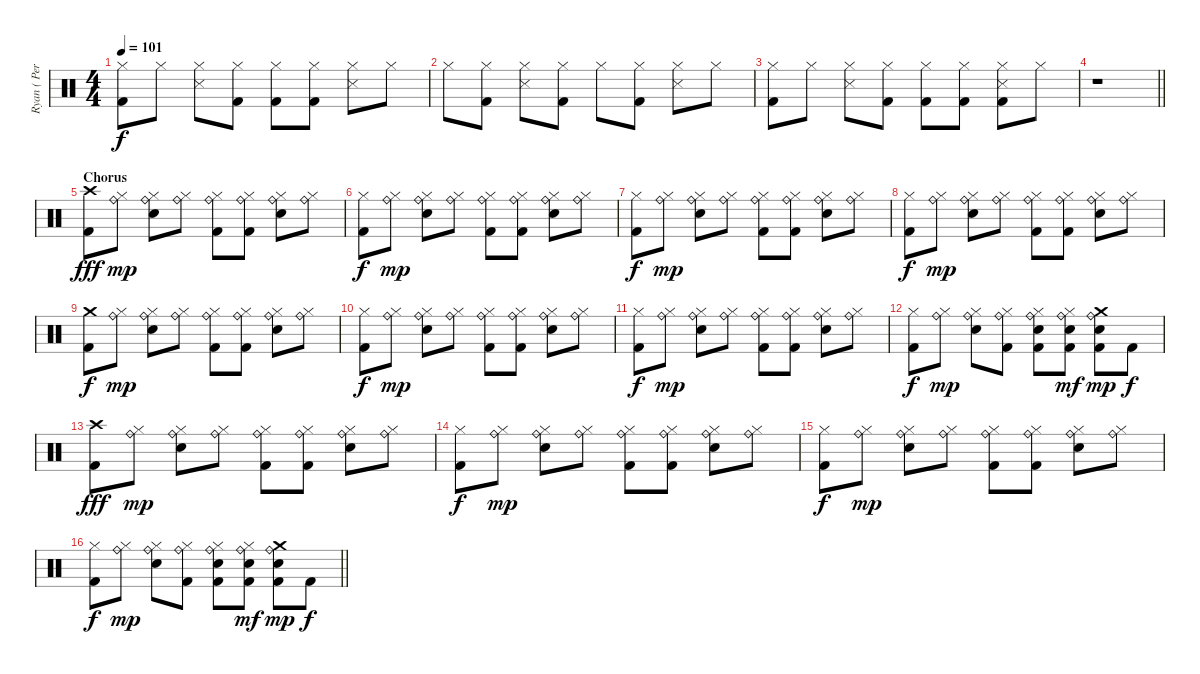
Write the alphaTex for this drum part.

\track ("Ryan ( Percussion )" "Ryan ( Per") {instrument percussion}
\staff {score}
\articulation defaults
\ts (4 4)
\tempo 101
\clef neutral
\ks c
("Hi-Hat (closed)" "Kick (hit) 2").8{dy f} "Hi-Hat (closed)".8 ("Hi-Hat (closed)" "Snare (side stick) 3").8 ("Hi-Hat (closed)" "Kick (hit) 2").8 ("Hi-Hat (closed)" "Kick (hit) 2").8 ("Hi-Hat (closed)" "Kick (hit) 2").8 ("Hi-Hat (closed)" "Snare (side stick) 3").8 "Hi-Hat (closed)".8 |
"Hi-Hat (closed)".8 ("Hi-Hat (closed)" "Kick (hit) 2").8 ("Hi-Hat (closed)" "Snare (side stick) 3").8 ("Hi-Hat (closed)" "Kick (hit) 2").8 "Hi-Hat (closed)".8 ("Hi-Hat (closed)" "Kick (hit) 2").8 ("Hi-Hat (closed)" "Snare (side stick) 3").8 "Hi-Hat (closed)".8 |
("Hi-Hat (closed)" "Kick (hit) 2").8 "Hi-Hat (closed)".8 ("Hi-Hat (closed)" "Snare (side stick) 3").8 ("Hi-Hat (closed)" "Kick (hit) 2").8 ("Hi-Hat (closed)" "Kick (hit) 2").8 ("Hi-Hat (closed)" "Kick (hit) 2").8 ("Hi-Hat (closed)" "Kick (hit) 2" "Snare (side stick) 3").8 "Hi-Hat (closed)".8 |
\barLineRight lightlight
r.1 |
\section ("" "Chorus")
("Crash high (hit)" "Kick (hit) 2").8{dy fff} ("Hi-Hat (closed)" "Ride (bell)").8{dy mp} ("Hi-Hat (closed)" "Snare (hit) 2" "Ride (bell)").8 ("Hi-Hat (closed)" "Ride (bell)").8 ("Hi-Hat (closed)" "Kick (hit) 2" "Ride (bell)").8 ("Hi-Hat (closed)" "Kick (hit) 2" "Ride (bell)").8 ("Hi-Hat (closed)" "Snare (hit) 2" "Ride (bell)").8 ("Hi-Hat (closed)" "Ride (bell)").8 |
("Hi-Hat (closed)" "Kick (hit) 2").8{dy f} ("Hi-Hat (closed)" "Ride (bell)").8{dy mp} ("Hi-Hat (closed)" "Snare (hit) 2" "Ride (bell)").8 ("Hi-Hat (closed)" "Ride (bell)").8 ("Hi-Hat (closed)" "Kick (hit) 2" "Ride (bell)").8 ("Hi-Hat (closed)" "Kick (hit) 2" "Ride (bell)").8 ("Hi-Hat (closed)" "Snare (hit) 2" "Ride (bell)").8 ("Hi-Hat (closed)" "Ride (bell)").8 |
("Hi-Hat (closed)" "Kick (hit) 2").8{dy f} ("Hi-Hat (closed)" "Ride (bell)").8{dy mp} ("Hi-Hat (closed)" "Snare (hit) 2" "Ride (bell)").8 ("Hi-Hat (closed)" "Ride (bell)").8 ("Hi-Hat (closed)" "Kick (hit) 2" "Ride (bell)").8 ("Hi-Hat (closed)" "Kick (hit) 2" "Ride (bell)").8 ("Hi-Hat (closed)" "Snare (hit) 2" "Ride (bell)").8 ("Hi-Hat (closed)" "Ride (bell)").8 |
("Hi-Hat (closed)" "Kick (hit) 2").8{dy f} ("Hi-Hat (closed)" "Ride (bell)").8{dy mp} ("Hi-Hat (closed)" "Snare (hit) 2" "Ride (bell)").8 ("Hi-Hat (closed)" "Ride (bell)").8 ("Hi-Hat (closed)" "Kick (hit) 2" "Ride (bell)").8 ("Hi-Hat (closed)" "Kick (hit) 2" "Ride (bell)").8 ("Hi-Hat (closed)" "Snare (hit) 2" "Ride (bell)").8 ("Hi-Hat (closed)" "Ride (bell)").8 |
("Crash medium (hit)" "Kick (hit) 2").8{dy f} ("Hi-Hat (closed)" "Ride (bell)").8{dy mp} ("Hi-Hat (closed)" "Snare (hit) 2" "Ride (bell)").8 ("Hi-Hat (closed)" "Ride (bell)").8 ("Hi-Hat (closed)" "Kick (hit) 2" "Ride (bell)").8 ("Hi-Hat (closed)" "Kick (hit) 2" "Ride (bell)").8 ("Hi-Hat (closed)" "Snare (hit) 2" "Ride (bell)").8 ("Hi-Hat (closed)" "Ride (bell)").8 |
("Hi-Hat (closed)" "Kick (hit) 2").8{dy f} ("Hi-Hat (closed)" "Ride (bell)").8{dy mp} ("Hi-Hat (closed)" "Snare (hit) 2" "Ride (bell)").8 ("Hi-Hat (closed)" "Ride (bell)").8 ("Hi-Hat (closed)" "Kick (hit) 2" "Ride (bell)").8 ("Hi-Hat (closed)" "Kick (hit) 2" "Ride (bell)").8 ("Hi-Hat (closed)" "Snare (hit) 2" "Ride (bell)").8 ("Hi-Hat (closed)" "Ride (bell)").8 |
("Hi-Hat (closed)" "Kick (hit) 2").8{dy f} ("Hi-Hat (closed)" "Ride (bell)").8{dy mp} ("Hi-Hat (closed)" "Snare (hit) 2" "Ride (bell)").8 ("Hi-Hat (closed)" "Ride (bell)").8 ("Hi-Hat (closed)" "Kick (hit) 2" "Ride (bell)").8 ("Hi-Hat (closed)" "Kick (hit) 2" "Ride (bell)").8 ("Hi-Hat (closed)" "Snare (hit) 2" "Ride (bell)").8 ("Hi-Hat (closed)" "Ride (bell)").8 |
("Hi-Hat (closed)" "Kick (hit) 2").8{dy f} ("Hi-Hat (closed)" "Ride (bell)").8{dy mp} ("Hi-Hat (closed)" "Snare (hit) 2" "Ride (bell)").8 ("Hi-Hat (closed)" "Kick (hit) 2" "Ride (bell)").8 ("Hi-Hat (closed)" "Kick (hit) 2" "Snare (hit) 2" "Ride (bell)").8 ("Hi-Hat (closed)" "Kick (hit) 2" "Snare (hit) 2" "Ride (bell)").8{dy mf} ("Crash medium (hit)" "Kick (hit) 2" "Snare (hit) 2" "Ride (bell)").8{dy mp} "Kick (hit) 2".8{dy f} |
("Crash high (hit)" "Kick (hit) 2").8{dy fff} ("Hi-Hat (closed)" "Ride (bell)").8{dy mp} ("Hi-Hat (closed)" "Snare (hit) 2" "Ride (bell)").8 ("Hi-Hat (closed)" "Ride (bell)").8 ("Hi-Hat (closed)" "Kick (hit) 2" "Ride (bell)").8 ("Hi-Hat (closed)" "Kick (hit) 2" "Ride (bell)").8 ("Hi-Hat (closed)" "Snare (hit) 2" "Ride (bell)").8 ("Hi-Hat (closed)" "Ride (bell)").8 |
("Hi-Hat (closed)" "Kick (hit) 2").8{dy f} ("Hi-Hat (closed)" "Ride (bell)").8{dy mp} ("Hi-Hat (closed)" "Snare (hit) 2" "Ride (bell)").8 ("Hi-Hat (closed)" "Ride (bell)").8 ("Hi-Hat (closed)" "Kick (hit) 2" "Ride (bell)").8 ("Hi-Hat (closed)" "Kick (hit) 2" "Ride (bell)").8 ("Hi-Hat (closed)" "Snare (hit) 2" "Ride (bell)").8 ("Hi-Hat (closed)" "Ride (bell)").8 |
("Hi-Hat (closed)" "Kick (hit) 2").8{dy f} ("Hi-Hat (closed)" "Ride (bell)").8{dy mp} ("Hi-Hat (closed)" "Snare (hit) 2" "Ride (bell)").8 ("Hi-Hat (closed)" "Ride (bell)").8 ("Hi-Hat (closed)" "Kick (hit) 2" "Ride (bell)").8 ("Hi-Hat (closed)" "Kick (hit) 2" "Ride (bell)").8 ("Hi-Hat (closed)" "Snare (hit) 2" "Ride (bell)").8 ("Hi-Hat (closed)" "Ride (bell)").8 |
\barLineRight lightlight
("Hi-Hat (closed)" "Kick (hit) 2").8{dy f} ("Hi-Hat (closed)" "Ride (bell)").8{dy mp} ("Hi-Hat (closed)" "Snare (hit) 2" "Ride (bell)").8 ("Hi-Hat (closed)" "Kick (hit) 2" "Ride (bell)").8 ("Hi-Hat (closed)" "Kick (hit) 2" "Snare (hit) 2" "Ride (bell)").8 ("Hi-Hat (closed)" "Kick (hit) 2" "Snare (hit) 2" "Ride (bell)").8{dy mf} ("Crash medium (hit)" "Kick (hit) 2" "Snare (hit) 2" "Ride (bell)").8{dy mp} "Kick (hit) 2".8{dy f}
